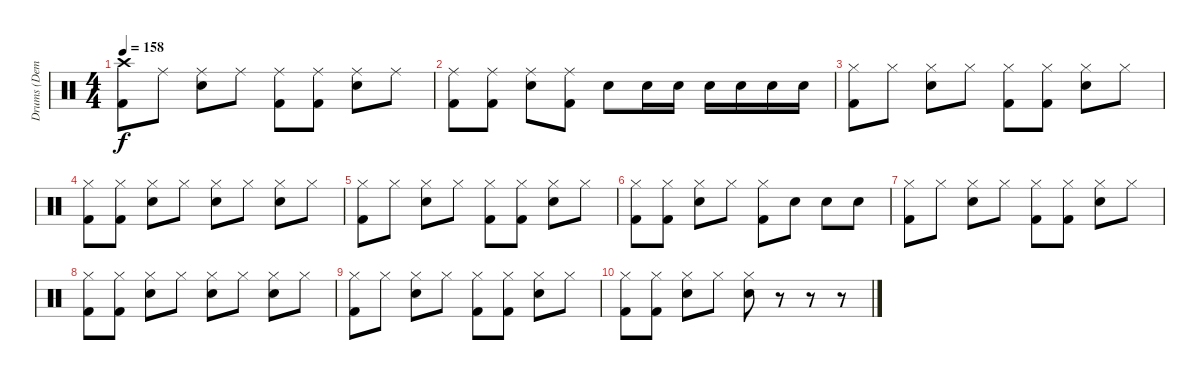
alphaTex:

\track ("Drums (Demetra)" "Drums (Dem") {instrument percussion}
\staff {score}
\articulation defaults
\ts (4 4)
\tempo 158
\clef neutral
\ks c
("Crash high (hit)" "Kick (hit) 2").8{dy f} "Ride (middle)".8 ("Ride (middle)" "Snare (hit) 2").8 "Ride (middle)".8 ("Ride (middle)" "Kick (hit) 2").8 ("Ride (middle)" "Kick (hit) 2").8 ("Ride (middle)" "Snare (hit) 2").8 "Ride (middle)".8 |
("Ride (middle)" "Kick (hit) 2").8 ("Ride (middle)" "Kick (hit) 2").8 ("Ride (middle)" "Snare (hit) 2").8 ("Ride (middle)" "Kick (hit) 2").8 "Snare (hit) 2".8 "Snare (hit) 2".16 "Snare (hit) 2".16 "Snare (hit) 2".16 "Snare (hit) 2".16 "Snare (hit) 2".16 "Snare (hit) 2".16 |
("Hi-Hat (closed)" "Kick (hit) 2").8 "Hi-Hat (closed)".8 ("Hi-Hat (closed)" "Snare (hit) 2").8 "Hi-Hat (closed)".8 ("Hi-Hat (closed)" "Kick (hit) 2").8 ("Hi-Hat (closed)" "Kick (hit) 2").8 ("Hi-Hat (closed)" "Snare (hit) 2").8 "Hi-Hat (closed)".8 |
("Hi-Hat (closed)" "Kick (hit) 2").8 ("Hi-Hat (closed)" "Kick (hit) 2").8 ("Hi-Hat (closed)" "Snare (hit) 2").8 "Hi-Hat (closed)".8 ("Hi-Hat (closed)" "Snare (hit) 2").8 "Hi-Hat (closed)".8 ("Hi-Hat (closed)" "Snare (hit) 2").8 "Hi-Hat (closed)".8 |
("Hi-Hat (closed)" "Kick (hit) 2").8 "Hi-Hat (closed)".8 ("Hi-Hat (closed)" "Snare (hit) 2").8 "Hi-Hat (closed)".8 ("Hi-Hat (closed)" "Kick (hit) 2").8 ("Hi-Hat (closed)" "Kick (hit) 2").8 ("Hi-Hat (closed)" "Snare (hit) 2").8 "Hi-Hat (closed)".8 |
("Hi-Hat (closed)" "Kick (hit) 2").8 ("Hi-Hat (closed)" "Kick (hit) 2").8 ("Hi-Hat (closed)" "Snare (hit) 2").8 "Hi-Hat (closed)".8 ("Hi-Hat (closed)" "Kick (hit) 2").8 "Snare (hit) 2".8 "Snare (hit) 2".8 "Snare (hit) 2".8 |
("Hi-Hat (closed)" "Kick (hit) 2").8 "Hi-Hat (closed)".8 ("Hi-Hat (closed)" "Snare (hit) 2").8 "Hi-Hat (closed)".8 ("Hi-Hat (closed)" "Kick (hit) 2").8 ("Hi-Hat (closed)" "Kick (hit) 2").8 ("Hi-Hat (closed)" "Snare (hit) 2").8 "Hi-Hat (closed)".8 |
("Hi-Hat (closed)" "Kick (hit) 2").8 ("Hi-Hat (closed)" "Kick (hit) 2").8 ("Hi-Hat (closed)" "Snare (hit) 2").8 "Hi-Hat (closed)".8 ("Hi-Hat (closed)" "Snare (hit) 2").8 "Hi-Hat (closed)".8 ("Hi-Hat (closed)" "Snare (hit) 2").8 "Hi-Hat (closed)".8 |
("Hi-Hat (closed)" "Kick (hit) 2").8 "Hi-Hat (closed)".8 ("Hi-Hat (closed)" "Snare (hit) 2").8 "Hi-Hat (closed)".8 ("Hi-Hat (closed)" "Kick (hit) 2").8 ("Hi-Hat (closed)" "Kick (hit) 2").8 ("Hi-Hat (closed)" "Snare (hit) 2").8 "Hi-Hat (closed)".8 |
("Hi-Hat (closed)" "Kick (hit) 2").8 ("Hi-Hat (closed)" "Kick (hit) 2").8 ("Hi-Hat (closed)" "Snare (hit) 2").8 "Hi-Hat (closed)".8 ("Hi-Hat (closed)" "Snare (hit) 2").8 r.8 r.8 r.8
